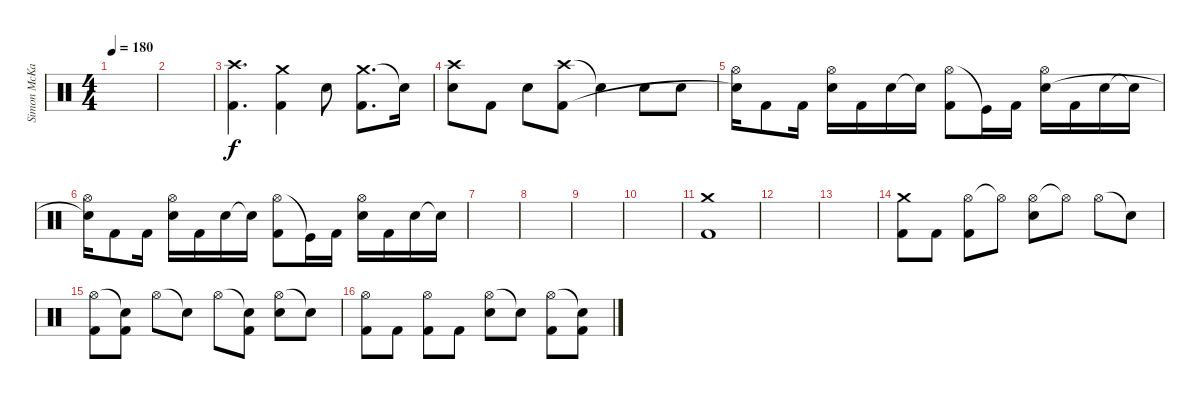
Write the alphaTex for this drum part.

\track ("Simon McKay" "Simon McKa") {instrument percussion}
\staff {score}
\articulation defaults
\ts (4 4)
\tempo 180
\clef neutral
\ks c
|
|
("Crash high (hit)" "Kick (hit) 2").4{d} ("Crash medium (hit)" "Kick (hit) 2").4 "Snare (hit) 2".8 ("Crash medium (hit)" "Kick (hit) 2").8{d} "Snare (hit)"{t}.16 |
("Crash high (hit)" "Snare (hit) 2").8 "Kick (hit) 2".8 "Snare (hit) 2".8 ("Crash high (hit)" "Kick (hit) 2").8 "Snare (hit)"{t}.4 "Snare (hit) 2".8 "Snare (hit) 2".8 |
("Hi-Hat (open)" "Snare (hit)"{t}).16 "Kick (hit) 2".8 "Kick (hit) 2".16 ("Hi-Hat (open)" "Snare (hit) 2").16 "Kick (hit) 2".16 "Snare (hit) 2".16 "Snare (hit)"{t}.16 ("Hi-Hat (open)" "Kick (hit) 2").8 "Kick (hit)"{t}.16 "Kick (hit) 2".16 ("Hi-Hat (open)" "Snare (hit) 2").16 "Kick (hit) 2".16 "Snare (hit) 2".16 "Snare (hit)"{t}.16 |
("Hi-Hat (open)" "Snare (hit)"{t}).16 "Kick (hit) 2".8 "Kick (hit) 2".16 ("Hi-Hat (open)" "Snare (hit) 2").16 "Kick (hit) 2".16 "Snare (hit) 2".16 "Snare (hit)"{t}.16 ("Hi-Hat (open)" "Kick (hit) 2").8 "Kick (hit)"{t}.16 "Kick (hit) 2".16 ("Hi-Hat (open)" "Snare (hit) 2").16 "Kick (hit) 2".16 "Snare (hit) 2".16 "Snare (hit)"{t}.16 |
|
|
|
|
("Crash medium (hit)" "Kick (hit) 2").1 |
|
|
("Crash medium (hit)" "Kick (hit) 2").8 "Kick (hit) 2".8 ("Hi-Hat (open)" "Kick (hit) 2").8 "Hi-Hat (open)"{t}.8 ("Hi-Hat (open)" "Snare (hit) 2").8 "Hi-Hat (open)"{t}.8 "Hi-Hat (open)".8 "Snare (hit)"{t}.8 |
("Hi-Hat (open)" "Kick (hit) 2").8 ("Snare (hit)"{t} "Kick (hit) 2").8 "Hi-Hat (open)".8 "Snare (hit)"{t}.8 "Hi-Hat (open)".8 ("Snare (hit)"{t} "Kick (hit) 2").8 ("Hi-Hat (open)" "Snare (hit) 2").8 "Snare (hit)"{t}.8 |
("Hi-Hat (open)" "Kick (hit) 2").8 "Kick (hit) 2".8 ("Hi-Hat (open)" "Kick (hit) 2").8 "Kick (hit) 2".8 ("Hi-Hat (open)" "Snare (hit) 2").8 "Snare (hit)"{t}.8 ("Hi-Hat (open)" "Kick (hit) 2").8 ("Snare (hit)"{t} "Kick (hit) 2").8
